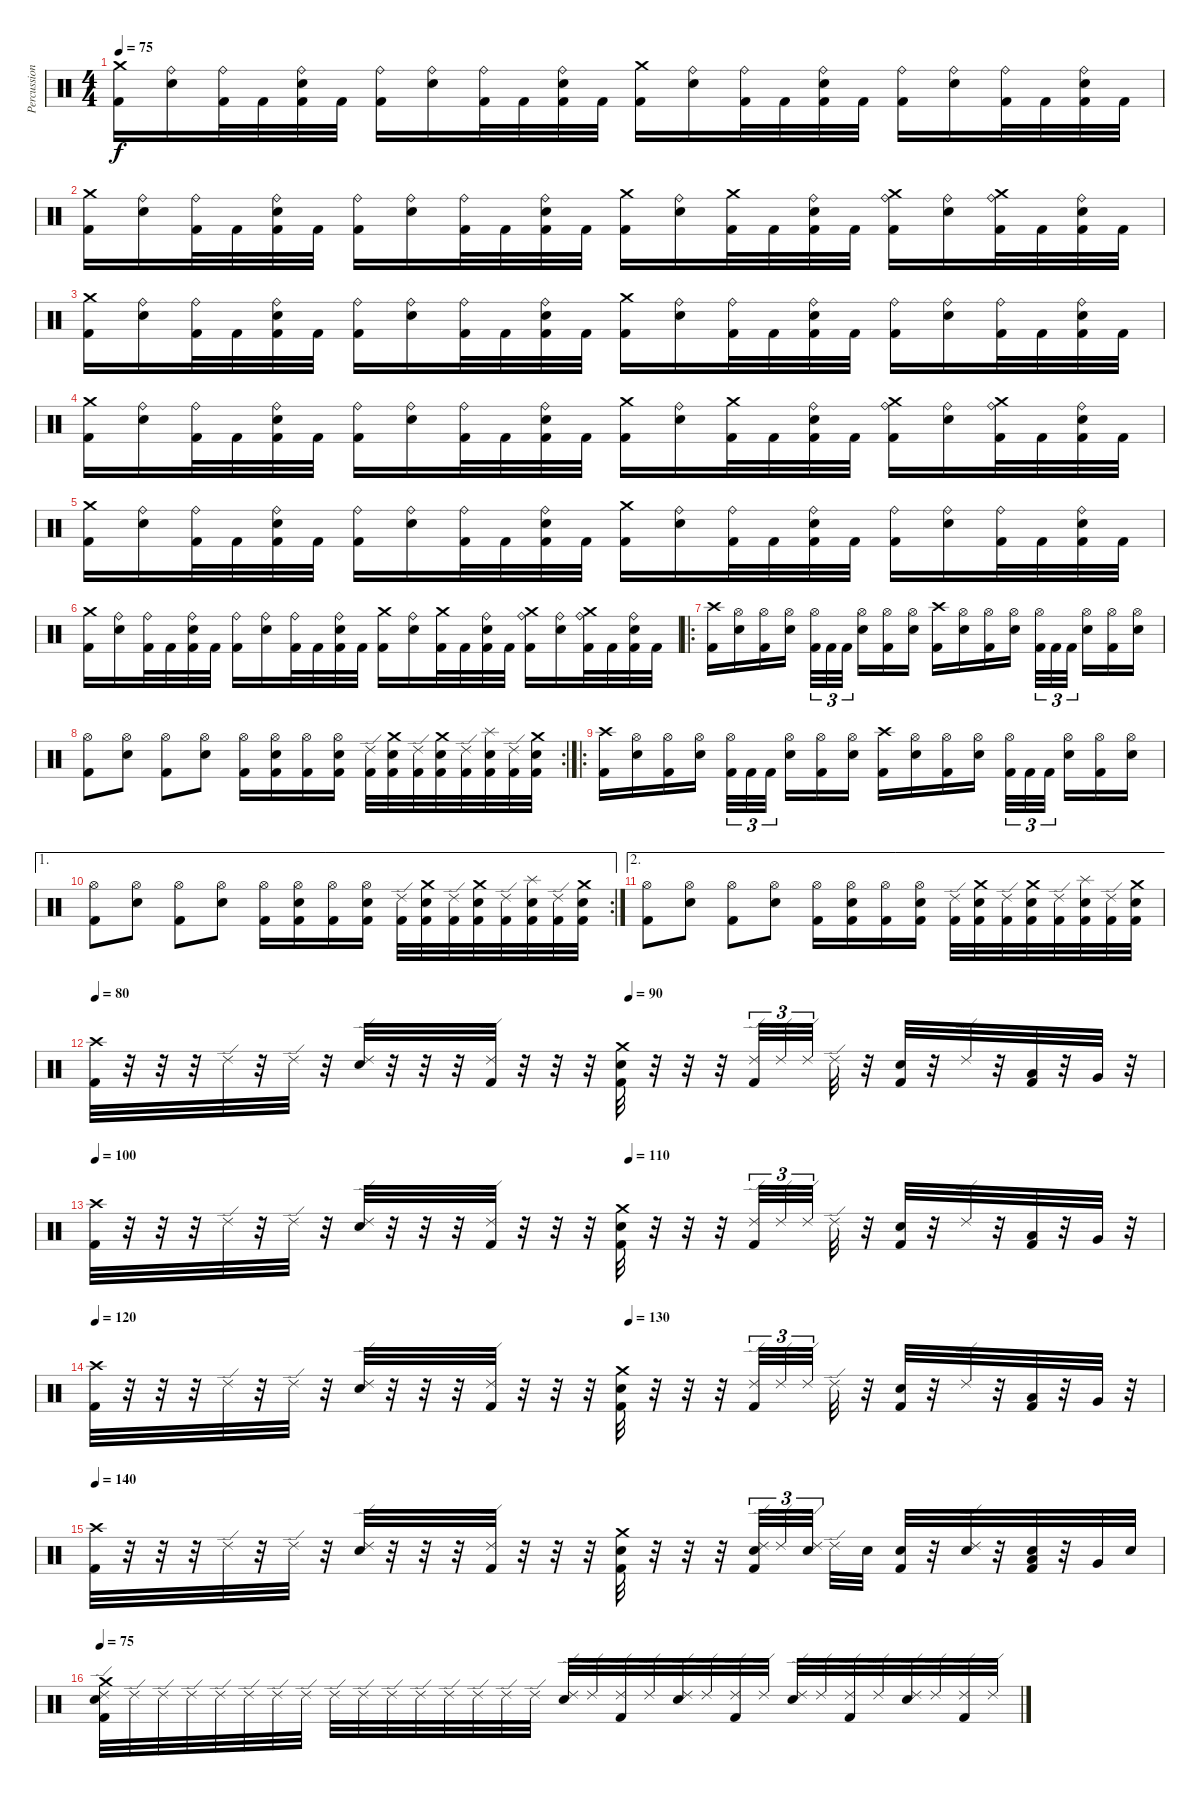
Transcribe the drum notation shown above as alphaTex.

\track ("Percussion" "Percussion") {instrument percussion}
\staff {score}
\articulation defaults
\ts (4 4)
\tempo 75
\clef neutral
\ks c
("Crash medium (hit)" "Kick (hit) 2").16{dy f} ("Ride (bell)" "Electric Snare (hit)").16 ("Ride (bell)" "Kick (hit) 2").32 "Kick (hit) 2".32 ("Ride (bell)" "Electric Snare (hit)" "Kick (hit) 2").32 "Kick (hit) 2".32 ("Ride (bell)" "Kick (hit) 2").16 ("Ride (bell)" "Electric Snare (hit)").16 ("Ride (bell)" "Kick (hit) 2").32 "Kick (hit) 2".32 ("Ride (bell)" "Electric Snare (hit)" "Kick (hit) 2").32 "Kick (hit) 2".32 ("Crash medium (hit)" "Kick (hit) 2").16 ("Ride (bell)" "Electric Snare (hit)").16 ("Ride (bell)" "Kick (hit) 2").32 "Kick (hit) 2".32 ("Ride (bell)" "Electric Snare (hit)" "Kick (hit) 2").32 "Kick (hit) 2".32 ("Ride (bell)" "Kick (hit) 2").16 ("Ride (bell)" "Electric Snare (hit)").16 ("Ride (bell)" "Kick (hit) 2").32 "Kick (hit) 2".32 ("Ride (bell)" "Electric Snare (hit)" "Kick (hit) 2").32 "Kick (hit) 2".32 |
("Crash medium (hit)" "Kick (hit) 2").16 ("Ride (bell)" "Electric Snare (hit)").16 ("Ride (bell)" "Kick (hit) 2").32 "Kick (hit) 2".32 ("Ride (bell)" "Electric Snare (hit)" "Kick (hit) 2").32 "Kick (hit) 2".32 ("Ride (bell)" "Kick (hit) 2").16 ("Ride (bell)" "Electric Snare (hit)").16 ("Ride (bell)" "Kick (hit) 2").32 "Kick (hit) 2".32 ("Ride (bell)" "Electric Snare (hit)" "Kick (hit) 2").32 "Kick (hit) 2".32 ("Crash medium (hit)" "Kick (hit) 2").16 ("Ride (bell)" "Electric Snare (hit)").16 ("Crash medium (hit)" "Kick (hit) 2").32 "Kick (hit) 2".32 ("Ride (bell)" "Electric Snare (hit)" "Kick (hit) 2").32 "Kick (hit) 2".32 ("Crash medium (hit)" "Ride (bell)" "Kick (hit) 2").16 ("Ride (bell)" "Electric Snare (hit)").16 ("Crash medium (hit)" "Ride (bell)" "Kick (hit) 2").32 "Kick (hit) 2".32 ("Ride (bell)" "Electric Snare (hit)" "Kick (hit) 2").32 "Kick (hit) 2".32 |
("Crash medium (hit)" "Kick (hit) 2").16 ("Ride (bell)" "Electric Snare (hit)").16 ("Ride (bell)" "Kick (hit) 2").32 "Kick (hit) 2".32 ("Ride (bell)" "Electric Snare (hit)" "Kick (hit) 2").32 "Kick (hit) 2".32 ("Ride (bell)" "Kick (hit) 2").16 ("Ride (bell)" "Electric Snare (hit)").16 ("Ride (bell)" "Kick (hit) 2").32 "Kick (hit) 2".32 ("Ride (bell)" "Electric Snare (hit)" "Kick (hit) 2").32 "Kick (hit) 2".32 ("Crash medium (hit)" "Kick (hit) 2").16 ("Ride (bell)" "Electric Snare (hit)").16 ("Ride (bell)" "Kick (hit) 2").32 "Kick (hit) 2".32 ("Ride (bell)" "Electric Snare (hit)" "Kick (hit) 2").32 "Kick (hit) 2".32 ("Ride (bell)" "Kick (hit) 2").16 ("Ride (bell)" "Electric Snare (hit)").16 ("Ride (bell)" "Kick (hit) 2").32 "Kick (hit) 2".32 ("Ride (bell)" "Electric Snare (hit)" "Kick (hit) 2").32 "Kick (hit) 2".32 |
("Crash medium (hit)" "Kick (hit) 2").16 ("Ride (bell)" "Electric Snare (hit)").16 ("Ride (bell)" "Kick (hit) 2").32 "Kick (hit) 2".32 ("Ride (bell)" "Electric Snare (hit)" "Kick (hit) 2").32 "Kick (hit) 2".32 ("Ride (bell)" "Kick (hit) 2").16 ("Ride (bell)" "Electric Snare (hit)").16 ("Ride (bell)" "Kick (hit) 2").32 "Kick (hit) 2".32 ("Ride (bell)" "Electric Snare (hit)" "Kick (hit) 2").32 "Kick (hit) 2".32 ("Crash medium (hit)" "Kick (hit) 2").16 ("Ride (bell)" "Electric Snare (hit)").16 ("Crash medium (hit)" "Kick (hit) 2").32 "Kick (hit) 2".32 ("Ride (bell)" "Electric Snare (hit)" "Kick (hit) 2").32 "Kick (hit) 2".32 ("Crash medium (hit)" "Ride (bell)" "Kick (hit) 2").16 ("Ride (bell)" "Electric Snare (hit)").16 ("Crash medium (hit)" "Ride (bell)" "Kick (hit) 2").32 "Kick (hit) 2".32 ("Ride (bell)" "Electric Snare (hit)" "Kick (hit) 2").32 "Kick (hit) 2".32 |
("Crash medium (hit)" "Kick (hit) 2").16 ("Ride (bell)" "Electric Snare (hit)").16 ("Ride (bell)" "Kick (hit) 2").32 "Kick (hit) 2".32 ("Ride (bell)" "Electric Snare (hit)" "Kick (hit) 2").32 "Kick (hit) 2".32 ("Ride (bell)" "Kick (hit) 2").16 ("Ride (bell)" "Electric Snare (hit)").16 ("Ride (bell)" "Kick (hit) 2").32 "Kick (hit) 2".32 ("Ride (bell)" "Electric Snare (hit)" "Kick (hit) 2").32 "Kick (hit) 2".32 ("Crash medium (hit)" "Kick (hit) 2").16 ("Ride (bell)" "Electric Snare (hit)").16 ("Ride (bell)" "Kick (hit) 2").32 "Kick (hit) 2".32 ("Ride (bell)" "Electric Snare (hit)" "Kick (hit) 2").32 "Kick (hit) 2".32 ("Ride (bell)" "Kick (hit) 2").16 ("Ride (bell)" "Electric Snare (hit)").16 ("Ride (bell)" "Kick (hit) 2").32 "Kick (hit) 2".32 ("Ride (bell)" "Electric Snare (hit)" "Kick (hit) 2").32 "Kick (hit) 2".32 |
("Crash medium (hit)" "Kick (hit) 2").16 ("Ride (bell)" "Electric Snare (hit)").16 ("Ride (bell)" "Kick (hit) 2").32 "Kick (hit) 2".32 ("Ride (bell)" "Electric Snare (hit)" "Kick (hit) 2").32 "Kick (hit) 2".32 ("Ride (bell)" "Kick (hit) 2").16 ("Ride (bell)" "Electric Snare (hit)").16 ("Ride (bell)" "Kick (hit) 2").32 "Kick (hit) 2".32 ("Ride (bell)" "Electric Snare (hit)" "Kick (hit) 2").32 "Kick (hit) 2".32 ("Crash medium (hit)" "Kick (hit) 2").16 ("Ride (bell)" "Electric Snare (hit)").16 ("Crash medium (hit)" "Kick (hit) 2").32 "Kick (hit) 2".32 ("Ride (bell)" "Electric Snare (hit)" "Kick (hit) 2").32 "Kick (hit) 2".32 ("Crash medium (hit)" "Ride (bell)" "Kick (hit) 2").16 ("Ride (bell)" "Electric Snare (hit)").16 ("Crash medium (hit)" "Ride (bell)" "Kick (hit) 2").32 "Kick (hit) 2".32 ("Ride (bell)" "Electric Snare (hit)" "Kick (hit) 2").32 "Kick (hit) 2".32 |
\ro
("Crash high (hit)" "Kick (hit) 2").16 ("Hi-Hat (open)" "Electric Snare (hit)").16 ("Hi-Hat (open)" "Kick (hit) 2").16 ("Hi-Hat (open)" "Electric Snare (hit)").16 ("Hi-Hat (open)" "Kick (hit) 2").32{tu (3 2)} "Kick (hit) 2".32{tu (3 2)} "Kick (hit) 2".32{tu (3 2)} ("Hi-Hat (open)" "Electric Snare (hit)").16 ("Hi-Hat (open)" "Kick (hit) 2").16 ("Hi-Hat (open)" "Electric Snare (hit)").16 ("Crash high (hit)" "Kick (hit) 2").16 ("Hi-Hat (open)" "Electric Snare (hit)").16 ("Hi-Hat (open)" "Kick (hit) 2").16 ("Hi-Hat (open)" "Electric Snare (hit)").16 ("Hi-Hat (open)" "Kick (hit) 2").32{tu (3 2)} "Kick (hit) 2".32{tu (3 2)} "Kick (hit) 2".32{tu (3 2)} ("Hi-Hat (open)" "Electric Snare (hit)").16 ("Hi-Hat (open)" "Kick (hit) 2").16 ("Hi-Hat (open)" "Electric Snare (hit)").16 |
\rc 2
("Hi-Hat (open)" "Kick (hit) 2").8 ("Hi-Hat (open)" "Electric Snare (hit)").8 ("Hi-Hat (open)" "Kick (hit) 2").8 ("Hi-Hat (open)" "Electric Snare (hit)").8 ("Hi-Hat (open)" "Kick (hit) 2").16 ("Hi-Hat (open)" "Electric Snare (hit)" "Kick (hit) 2").16 ("Hi-Hat (open)" "Kick (hit) 2").16 ("Hi-Hat (open)" "Electric Snare (hit)" "Kick (hit) 2").16 ("Ride (edge) 2" "Kick (hit) 2").32 ("Crash medium (hit)" "Electric Snare (hit)" "Kick (hit) 2").32 ("Ride (edge) 2" "Kick (hit) 2").32 ("Crash medium (hit)" "Electric Snare (hit)" "Kick (hit) 2").32 ("Ride (edge) 2" "Kick (hit) 2").32 ("Splash (hit)" "Electric Snare (hit)" "Kick (hit) 2").32 ("Ride (edge) 2" "Kick (hit) 2").32 ("Crash medium (hit)" "Electric Snare (hit)" "Kick (hit) 2").32 |
\ro
("Crash high (hit)" "Kick (hit) 2").16 ("Hi-Hat (open)" "Electric Snare (hit)").16 ("Hi-Hat (open)" "Kick (hit) 2").16 ("Hi-Hat (open)" "Electric Snare (hit)").16 ("Hi-Hat (open)" "Kick (hit) 2").32{tu (3 2)} "Kick (hit) 2".32{tu (3 2)} "Kick (hit) 2".32{tu (3 2)} ("Hi-Hat (open)" "Electric Snare (hit)").16 ("Hi-Hat (open)" "Kick (hit) 2").16 ("Hi-Hat (open)" "Electric Snare (hit)").16 ("Crash high (hit)" "Kick (hit) 2").16 ("Hi-Hat (open)" "Electric Snare (hit)").16 ("Hi-Hat (open)" "Kick (hit) 2").16 ("Hi-Hat (open)" "Electric Snare (hit)").16 ("Hi-Hat (open)" "Kick (hit) 2").32{tu (3 2)} "Kick (hit) 2".32{tu (3 2)} "Kick (hit) 2".32{tu (3 2)} ("Hi-Hat (open)" "Electric Snare (hit)").16 ("Hi-Hat (open)" "Kick (hit) 2").16 ("Hi-Hat (open)" "Electric Snare (hit)").16 |
\ae 1
\rc 2
("Hi-Hat (open)" "Kick (hit) 2").8 ("Hi-Hat (open)" "Electric Snare (hit)").8 ("Hi-Hat (open)" "Kick (hit) 2").8 ("Hi-Hat (open)" "Electric Snare (hit)").8 ("Hi-Hat (open)" "Kick (hit) 2").16 ("Hi-Hat (open)" "Electric Snare (hit)" "Kick (hit) 2").16 ("Hi-Hat (open)" "Kick (hit) 2").16 ("Hi-Hat (open)" "Electric Snare (hit)" "Kick (hit) 2").16 ("Ride (edge) 2" "Kick (hit) 2").32 ("Crash medium (hit)" "Electric Snare (hit)" "Kick (hit) 2").32 ("Ride (edge) 2" "Kick (hit) 2").32 ("Crash medium (hit)" "Electric Snare (hit)" "Kick (hit) 2").32 ("Ride (edge) 2" "Kick (hit) 2").32 ("Splash (hit)" "Electric Snare (hit)" "Kick (hit) 2").32 ("Ride (edge) 2" "Kick (hit) 2").32 ("Crash medium (hit)" "Electric Snare (hit)" "Kick (hit) 2").32 |
\ae 2
("Hi-Hat (open)" "Kick (hit) 2").8 ("Hi-Hat (open)" "Electric Snare (hit)").8 ("Hi-Hat (open)" "Kick (hit) 2").8 ("Hi-Hat (open)" "Electric Snare (hit)").8 ("Hi-Hat (open)" "Kick (hit) 2").16 ("Hi-Hat (open)" "Electric Snare (hit)" "Kick (hit) 2").16 ("Hi-Hat (open)" "Kick (hit) 2").16 ("Hi-Hat (open)" "Electric Snare (hit)" "Kick (hit) 2").16 ("Ride (edge) 2" "Kick (hit) 2").32 ("Crash medium (hit)" "Electric Snare (hit)" "Kick (hit) 2").32 ("Ride (edge) 2" "Kick (hit) 2").32 ("Crash medium (hit)" "Electric Snare (hit)" "Kick (hit) 2").32 ("Ride (edge) 2" "Kick (hit) 2").32 ("Splash (hit)" "Electric Snare (hit)" "Kick (hit) 2").32 ("Ride (edge) 2" "Kick (hit) 2").32 ("Crash medium (hit)" "Electric Snare (hit)" "Kick (hit) 2").32 |
\tempo 80
\tempo (90 0.5)
("Crash high (hit)" "Kick (hit) 2").32 r.32 r.32 r.32 "Ride (edge) 2".32 r.32 "Ride (edge) 2".32 r.32 ("Ride (edge) 2" "Electric Snare (hit)").32 r.32 r.32 r.32 ("Ride (edge) 2" "Kick (hit) 2").32 r.32 r.32 r.32 ("Crash medium (hit)" "Electric Snare (hit)" "Kick (hit) 2").32 r.32 r.32 r.32 ("Ride (edge) 2" "Kick (hit) 2").32{tu (3 2)} "Ride (edge) 2".32{tu (3 2)} "Ride (edge) 2".32{tu (3 2)} "Ride (edge) 2".32 r.32 ("Electric Snare (hit)" "Kick (hit) 2").32 r.32 "Ride (edge) 2".32 r.32 ("Low Tom (hit)" "Kick (hit) 2").32 r.32 "Very Low Tom (hit)".32 r.32 |
\tempo 100
\tempo (110 0.5)
("Crash high (hit)" "Kick (hit) 2").32 r.32 r.32 r.32 "Ride (edge) 2".32 r.32 "Ride (edge) 2".32 r.32 ("Ride (edge) 2" "Electric Snare (hit)").32 r.32 r.32 r.32 ("Ride (edge) 2" "Kick (hit) 2").32 r.32 r.32 r.32 ("Crash medium (hit)" "Electric Snare (hit)" "Kick (hit) 2").32 r.32 r.32 r.32 ("Ride (edge) 2" "Kick (hit) 2").32{tu (3 2)} "Ride (edge) 2".32{tu (3 2)} "Ride (edge) 2".32{tu (3 2)} "Ride (edge) 2".32 r.32 ("Electric Snare (hit)" "Kick (hit) 2").32 r.32 "Ride (edge) 2".32 r.32 ("Low Tom (hit)" "Kick (hit) 2").32 r.32 "Very Low Tom (hit)".32 r.32 |
\tempo 120
\tempo (130 0.5)
("Crash high (hit)" "Kick (hit) 2").32 r.32 r.32 r.32 "Ride (edge) 2".32 r.32 "Ride (edge) 2".32 r.32 ("Ride (edge) 2" "Electric Snare (hit)").32 r.32 r.32 r.32 ("Ride (edge) 2" "Kick (hit) 2").32 r.32 r.32 r.32 ("Crash medium (hit)" "Electric Snare (hit)" "Kick (hit) 2").32 r.32 r.32 r.32 ("Ride (edge) 2" "Kick (hit) 2").32{tu (3 2)} "Ride (edge) 2".32{tu (3 2)} "Ride (edge) 2".32{tu (3 2)} "Ride (edge) 2".32 r.32 ("Electric Snare (hit)" "Kick (hit) 2").32 r.32 "Ride (edge) 2".32 r.32 ("Low Tom (hit)" "Kick (hit) 2").32 r.32 "Very Low Tom (hit)".32 r.32 |
\tempo 140
("Crash high (hit)" "Kick (hit) 2").32 r.32 r.32 r.32 "Ride (edge) 2".32 r.32 "Ride (edge) 2".32 r.32 ("Ride (edge) 2" "Electric Snare (hit)").32 r.32 r.32 r.32 ("Ride (edge) 2" "Kick (hit) 2").32 r.32 r.32 r.32 ("Crash medium (hit)" "Electric Snare (hit)" "Kick (hit) 2").32 r.32 r.32 r.32 ("Ride (edge) 2" "Electric Snare (hit)" "Kick (hit) 2").32{tu (3 2)} "Ride (edge) 2".32{tu (3 2)} ("Ride (edge) 2" "Electric Snare (hit)").32{tu (3 2)} "Ride (edge) 2".32 "Electric Snare (hit)".32 ("Electric Snare (hit)" "Kick (hit) 2").32 r.32 ("Electric Snare (hit)" "Ride (edge) 2").32 r.32 ("Low Tom (hit)" "Electric Snare (hit)" "Kick (hit) 2").32 r.32 "Very Low Tom (hit)".32 "Electric Snare (hit)".32 |
\tempo 75
("Crash medium (hit)" "Electric Snare (hit)" "Ride (edge) 2" "Kick (hit) 2").32 "Ride (edge) 2".32 "Ride (edge) 2".32 "Ride (edge) 2".32 "Ride (edge) 2".32 "Ride (edge) 2".32 "Ride (edge) 2".32 "Ride (edge) 2".32 "Ride (edge) 2".32 "Ride (edge) 2".32 "Ride (edge) 2".32 "Ride (edge) 2".32 "Ride (edge) 2".32 "Ride (edge) 2".32 "Ride (edge) 2".32 "Ride (edge) 2".32 ("Electric Snare (hit)" "Ride (edge) 2").32 "Ride (edge) 2".32 ("Ride (edge) 2" "Kick (hit) 2").32 "Ride (edge) 2".32 ("Electric Snare (hit)" "Ride (edge) 2").32 "Ride (edge) 2".32 ("Ride (edge) 2" "Kick (hit) 2").32 "Ride (edge) 2".32 ("Electric Snare (hit)" "Ride (edge) 2").32 "Ride (edge) 2".32 ("Ride (edge) 2" "Kick (hit) 2").32 "Ride (edge) 2".32 ("Electric Snare (hit)" "Ride (edge) 2").32 "Ride (edge) 2".32 ("Ride (edge) 2" "Kick (hit) 2").32 "Ride (edge) 2".32
